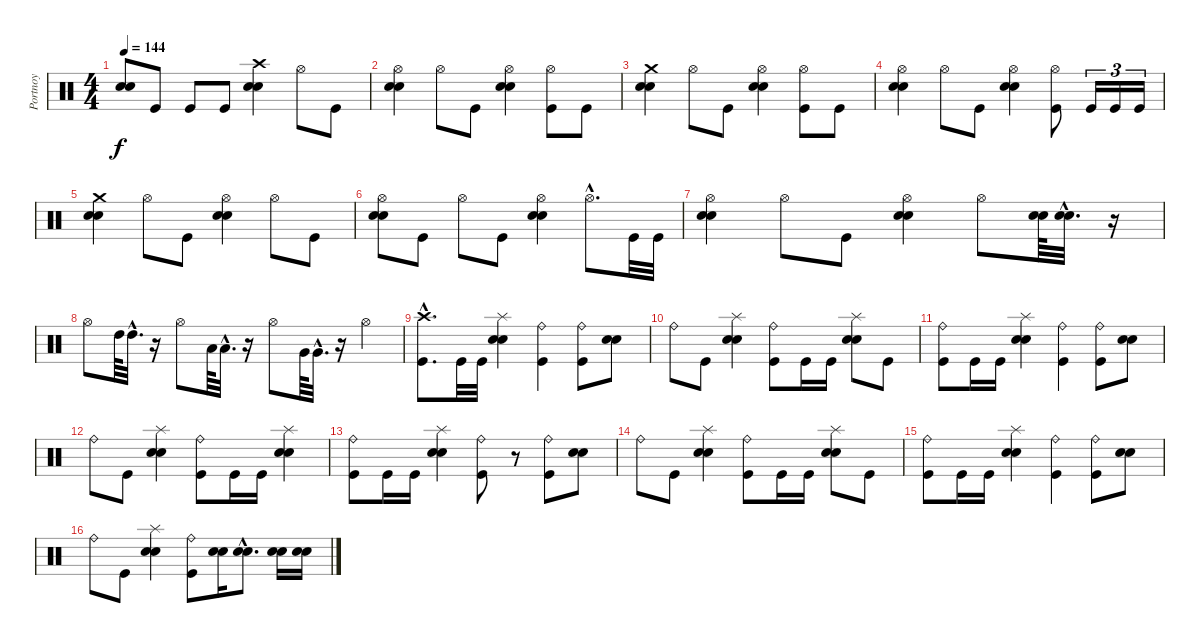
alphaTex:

\track ("Portnoy" "Portnoy") {instrument percussion}
\staff {score}
\articulation defaults
\ts (4 4)
\tempo 144
\clef neutral
\ks c
("Snare (hit) 2" "Electric Snare (hit)").8{dy f} "Kick (hit)".8 "Kick (hit)".8 "Kick (hit)".8 ("Crash high (hit)" "Snare (hit) 2" "Electric Snare (hit)").4 "Hi-Hat (open)".8 "Kick (hit)".8 |
("Hi-Hat (open)" "Snare (hit) 2" "Electric Snare (hit)").4 "Hi-Hat (open)".8 "Kick (hit)".8 ("Hi-Hat (open)" "Snare (hit) 2" "Electric Snare (hit)").4 ("Hi-Hat (open)" "Kick (hit)").8 "Kick (hit)".8 |
("Crash medium (hit)" "Snare (hit) 2" "Electric Snare (hit)").4 "Hi-Hat (open)".8 "Kick (hit)".8 ("Hi-Hat (open)" "Snare (hit) 2" "Electric Snare (hit)").4 ("Hi-Hat (open)" "Kick (hit)").8 "Kick (hit)".8 |
("Hi-Hat (open)" "Snare (hit) 2" "Electric Snare (hit)").4 "Hi-Hat (open)".8 "Kick (hit)".8 ("Hi-Hat (open)" "Snare (hit) 2" "Electric Snare (hit)").4 ("Hi-Hat (open)" "Kick (hit)").8 "Kick (hit)".16{tu (3 2)} "Kick (hit)".16{tu (3 2)} "Kick (hit)".16{tu (3 2)} |
("Crash medium (hit)" "Electric Snare (hit)" "Snare (hit) 2").4 "Hi-Hat (open)".8 "Kick (hit)".8 ("Hi-Hat (open)" "Electric Snare (hit)" "Snare (hit) 2").4 "Hi-Hat (open)".8 "Kick (hit)".8 |
("Hi-Hat (open)" "Snare (hit) 2" "Electric Snare (hit)").8 "Kick (hit)".8 "Hi-Hat (open)".8 "Kick (hit)".8 ("Hi-Hat (open)" "Snare (hit) 2" "Electric Snare (hit)").4 "Hi-Hat (open)"{hac}.8{d} "Kick (hit)".32 "Kick (hit)".32 |
("Hi-Hat (open)" "Snare (hit) 2" "Electric Snare (hit)").4 "Hi-Hat (open)".8 "Kick (hit)".8 ("Hi-Hat (open)" "Snare (hit) 2" "Electric Snare (hit)").4 "Hi-Hat (open)".8 ("Snare (hit) 2" "Electric Snare (hit)").64 ("Snare (hit) 2"{hac} "Electric Snare (hit)"{hac}).32{d} r.16 |
"Hi-Hat (open)".8 "High Tom (hit)".64 "High Tom (hit)"{hac}.32{d} r.16 "Hi-Hat (open)".8 "Low Tom (hit)".64 "Low Tom (hit)"{hac}.32{d} r.16 "Hi-Hat (open)".8 "Very Low Tom (hit)".64 "Very Low Tom (hit)"{hac}.32{d} r.16 "Hi-Hat (open)".4 |
("Crash high (hit)"{hac} "Kick (hit)"{hac}).8{d} "Kick (hit)".32 "Kick (hit)".32 ("Splash (hit)" "Snare (hit) 2" "Electric Snare (hit)").4 ("Ride (bell)" "Kick (hit)").4 ("Ride (bell)" "Kick (hit)").8 ("Snare (hit) 2" "Electric Snare (hit)").8 |
"Ride (bell)".8 "Kick (hit)".8 ("Splash (hit)" "Snare (hit) 2" "Electric Snare (hit)").4 ("Ride (bell)" "Kick (hit)").8 "Kick (hit)".16 "Kick (hit)".16 ("Splash (hit)" "Snare (hit) 2" "Electric Snare (hit)").8 "Kick (hit)".8 |
("Ride (bell)" "Kick (hit)").8 "Kick (hit)".16 "Kick (hit)".16 ("Splash (hit)" "Snare (hit) 2" "Electric Snare (hit)").4 ("Ride (bell)" "Kick (hit)").4 ("Ride (bell)" "Kick (hit)").8 ("Snare (hit) 2" "Electric Snare (hit)").8 |
"Ride (bell)".8 "Kick (hit)".8 ("Splash (hit)" "Snare (hit) 2" "Electric Snare (hit)").4 ("Ride (bell)" "Kick (hit)").8 "Kick (hit)".16 "Kick (hit)".16 ("Splash (hit)" "Snare (hit) 2" "Electric Snare (hit)").4 |
("Ride (bell)" "Kick (hit)").8 "Kick (hit)".16 "Kick (hit)".16 ("Splash (hit)" "Snare (hit) 2" "Electric Snare (hit)").4 ("Ride (bell)" "Kick (hit)").8 r.8 ("Ride (bell)" "Kick (hit)").8 ("Snare (hit) 2" "Electric Snare (hit)").8 |
"Ride (bell)".8 "Kick (hit)".8 ("Splash (hit)" "Snare (hit) 2" "Electric Snare (hit)").4 ("Ride (bell)" "Kick (hit)").8 "Kick (hit)".16 "Kick (hit)".16 ("Splash (hit)" "Snare (hit) 2" "Electric Snare (hit)").8 "Kick (hit)".8 |
("Ride (bell)" "Kick (hit)").8 "Kick (hit)".16 "Kick (hit)".16 ("Splash (hit)" "Snare (hit) 2" "Electric Snare (hit)").4 ("Ride (bell)" "Kick (hit)").4 ("Ride (bell)" "Kick (hit)").8 ("Snare (hit) 2" "Electric Snare (hit)").8 |
"Ride (bell)".8 "Kick (hit)".8 ("Splash (hit)" "Snare (hit) 2" "Electric Snare (hit)").4 ("Ride (bell)" "Kick (hit)").8 ("Snare (hit) 2" "Electric Snare (hit)").16 ("Snare (hit) 2"{hac} "Electric Snare (hit)"{hac}).8{d} ("Snare (hit) 2" "Electric Snare (hit)").16 ("Snare (hit) 2" "Electric Snare (hit)").16
